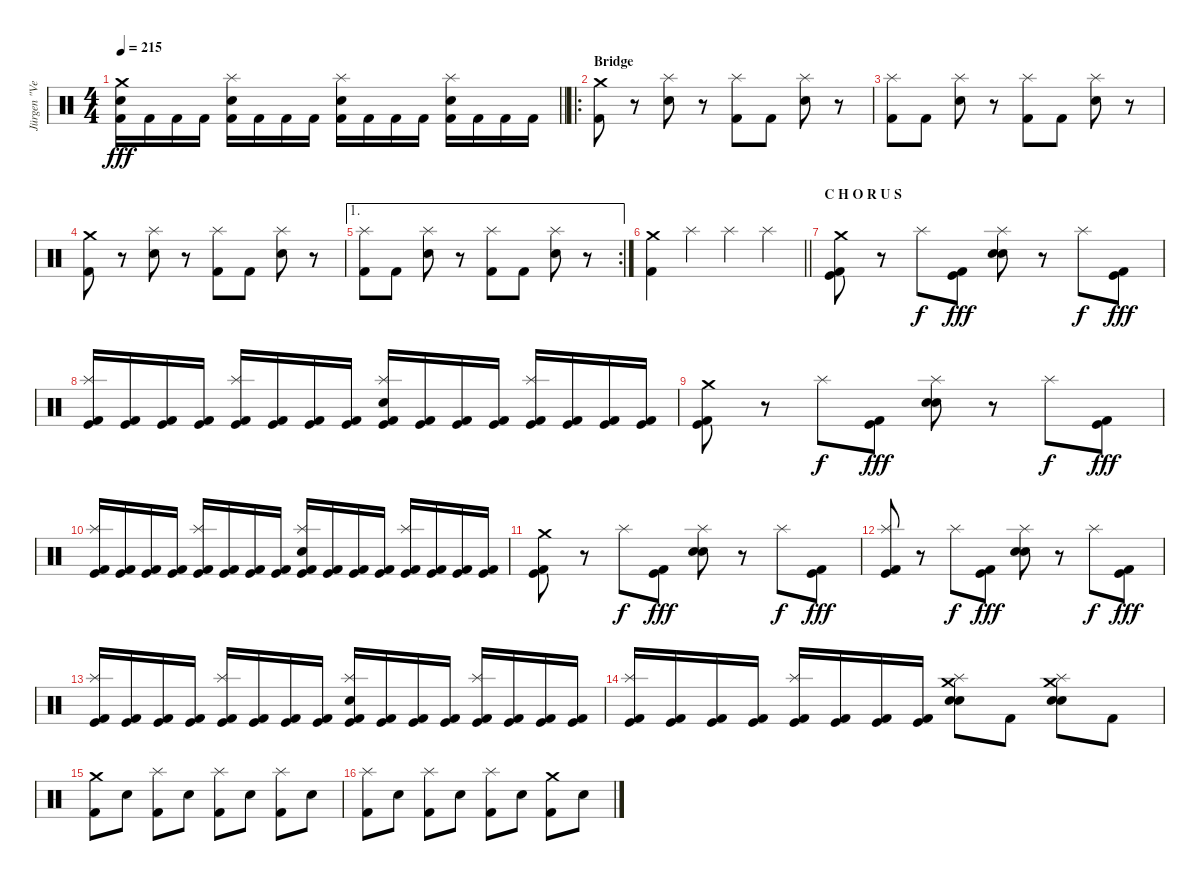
\track ("Jürgen \"Ventor\" Reil" "Jürgen \"Ve") {instrument percussion}
\staff {score}
\articulation defaults
\ts (4 4)
\tempo 215
\clef neutral
\barLineRight lightlight
\ks c
("Crash medium (hit)" "Electric Snare (hit)" "Kick (hit) 2").16{dy fff} "Kick (hit) 2".16 "Kick (hit) 2".16 "Kick (hit) 2".16 ("Splash (hit)" "Electric Snare (hit)" "Kick (hit) 2").16 "Kick (hit) 2".16 "Kick (hit) 2".16 "Kick (hit) 2".16 ("Splash (hit)" "Electric Snare (hit)" "Kick (hit) 2").16 "Kick (hit) 2".16 "Kick (hit) 2".16 "Kick (hit) 2".16 ("Splash (hit)" "Electric Snare (hit)" "Kick (hit) 2").16 "Kick (hit) 2".16 "Kick (hit) 2".16 "Kick (hit) 2".16 |
\ro
\section ("" "Bridge")
("Crash medium (hit)" "Kick (hit) 2").8 r.8 ("Splash (hit)" "Electric Snare (hit)").8 r.8 ("Splash (hit)" "Kick (hit) 2").8 "Kick (hit) 2".8 ("Splash (hit)" "Electric Snare (hit)").8 r.8 |
("Splash (hit)" "Kick (hit) 2").8 "Kick (hit) 2".8 ("Splash (hit)" "Electric Snare (hit)").8 r.8 ("Splash (hit)" "Kick (hit) 2").8 "Kick (hit) 2".8 ("Splash (hit)" "Electric Snare (hit)").8 r.8 |
("Crash medium (hit)" "Kick (hit) 2").8 r.8 ("Splash (hit)" "Electric Snare (hit)").8 r.8 ("Splash (hit)" "Kick (hit) 2").8 "Kick (hit) 2".8 ("Splash (hit)" "Electric Snare (hit)").8 r.8 |
\ae 1
\rc 2
("Splash (hit)" "Kick (hit) 2").8 "Kick (hit) 2".8 ("Splash (hit)" "Electric Snare (hit)").8 r.8 ("Splash (hit)" "Kick (hit) 2").8 "Kick (hit) 2".8 ("Splash (hit)" "Electric Snare (hit)").8 r.8 |
\barLineRight lightlight
("Crash medium (hit)" "Kick (hit) 2").4 "Splash (hit)".4 "Splash (hit)".4 "Splash (hit)".4 |
\section ("" "C H O R U S")
("Crash medium (hit)" "Kick (hit)" "Kick (hit) 2").8 r.8 "Splash (hit)".8{dy f} ("Kick (hit)" "Kick (hit) 2").8{dy fff} ("Splash (hit)" "Snare (hit) 2" "Electric Snare (hit)").8 r.8 "Splash (hit)".8{dy f} ("Kick (hit)" "Kick (hit) 2").8{dy fff} |
("Splash (hit)" "Kick (hit)" "Kick (hit) 2").16 ("Kick (hit)" "Kick (hit) 2").16 ("Kick (hit)" "Kick (hit) 2").16 ("Kick (hit)" "Kick (hit) 2").16 ("Splash (hit)" "Kick (hit)" "Kick (hit) 2").16 ("Kick (hit)" "Kick (hit) 2").16 ("Kick (hit)" "Kick (hit) 2").16 ("Kick (hit)" "Kick (hit) 2").16 ("Splash (hit)" "Electric Snare (hit)" "Kick (hit)" "Kick (hit) 2").16 ("Kick (hit)" "Kick (hit) 2").16 ("Kick (hit)" "Kick (hit) 2").16 ("Kick (hit)" "Kick (hit) 2").16 ("Splash (hit)" "Kick (hit)" "Kick (hit) 2").16 ("Kick (hit)" "Kick (hit) 2").16 ("Kick (hit)" "Kick (hit) 2").16 ("Kick (hit)" "Kick (hit) 2").16 |
("Crash medium (hit)" "Kick (hit)" "Kick (hit) 2").8 r.8 "Splash (hit)".8{dy f} ("Kick (hit)" "Kick (hit) 2").8{dy fff} ("Splash (hit)" "Snare (hit) 2" "Electric Snare (hit)").8 r.8 "Splash (hit)".8{dy f} ("Kick (hit)" "Kick (hit) 2").8{dy fff} |
("Splash (hit)" "Kick (hit)" "Kick (hit) 2").16 ("Kick (hit)" "Kick (hit) 2").16 ("Kick (hit)" "Kick (hit) 2").16 ("Kick (hit)" "Kick (hit) 2").16 ("Splash (hit)" "Kick (hit)" "Kick (hit) 2").16 ("Kick (hit)" "Kick (hit) 2").16 ("Kick (hit)" "Kick (hit) 2").16 ("Kick (hit)" "Kick (hit) 2").16 ("Splash (hit)" "Electric Snare (hit)" "Kick (hit)" "Kick (hit) 2").16 ("Kick (hit)" "Kick (hit) 2").16 ("Kick (hit)" "Kick (hit) 2").16 ("Kick (hit)" "Kick (hit) 2").16 ("Splash (hit)" "Kick (hit)" "Kick (hit) 2").16 ("Kick (hit)" "Kick (hit) 2").16 ("Kick (hit)" "Kick (hit) 2").16 ("Kick (hit)" "Kick (hit) 2").16 |
("Crash medium (hit)" "Kick (hit)" "Kick (hit) 2").8 r.8 "Splash (hit)".8{dy f} ("Kick (hit)" "Kick (hit) 2").8{dy fff} ("Splash (hit)" "Snare (hit) 2" "Electric Snare (hit)").8 r.8 "Splash (hit)".8{dy f} ("Kick (hit)" "Kick (hit) 2").8{dy fff} |
("Splash (hit)" "Kick (hit)" "Kick (hit) 2").8 r.8 "Splash (hit)".8{dy f} ("Kick (hit)" "Kick (hit) 2").8{dy fff} ("Splash (hit)" "Snare (hit) 2" "Electric Snare (hit)").8 r.8 "Splash (hit)".8{dy f} ("Kick (hit)" "Kick (hit) 2").8{dy fff} |
("Splash (hit)" "Kick (hit)" "Kick (hit) 2").16 ("Kick (hit)" "Kick (hit) 2").16 ("Kick (hit)" "Kick (hit) 2").16 ("Kick (hit)" "Kick (hit) 2").16 ("Splash (hit)" "Kick (hit)" "Kick (hit) 2").16 ("Kick (hit)" "Kick (hit) 2").16 ("Kick (hit)" "Kick (hit) 2").16 ("Kick (hit)" "Kick (hit) 2").16 ("Splash (hit)" "Electric Snare (hit)" "Kick (hit)" "Kick (hit) 2").16 ("Kick (hit)" "Kick (hit) 2").16 ("Kick (hit)" "Kick (hit) 2").16 ("Kick (hit)" "Kick (hit) 2").16 ("Splash (hit)" "Kick (hit)" "Kick (hit) 2").16 ("Kick (hit)" "Kick (hit) 2").16 ("Kick (hit)" "Kick (hit) 2").16 ("Kick (hit)" "Kick (hit) 2").16 |
("Splash (hit)" "Kick (hit)" "Kick (hit) 2").16 ("Kick (hit)" "Kick (hit) 2").16 ("Kick (hit)" "Kick (hit) 2").16 ("Kick (hit)" "Kick (hit) 2").16 ("Splash (hit)" "Kick (hit)" "Kick (hit) 2").16 ("Kick (hit)" "Kick (hit) 2").16 ("Kick (hit)" "Kick (hit) 2").16 ("Kick (hit)" "Kick (hit) 2").16 ("Splash (hit)" "Crash medium (hit)" "Electric Snare (hit)" "Snare (hit) 2").8 "Kick (hit) 2".8 ("Splash (hit)" "Crash medium (hit)" "Electric Snare (hit)" "Snare (hit) 2").8 "Kick (hit) 2".8 |
("Crash medium (hit)" "Kick (hit) 2").8 "Electric Snare (hit)".8 ("Splash (hit)" "Kick (hit) 2").8 "Electric Snare (hit)".8 ("Splash (hit)" "Kick (hit) 2").8 "Electric Snare (hit)".8 ("Splash (hit)" "Kick (hit) 2").8 "Electric Snare (hit)".8 |
("Splash (hit)" "Kick (hit) 2").8 "Electric Snare (hit)".8 ("Splash (hit)" "Kick (hit) 2").8 "Electric Snare (hit)".8 ("Splash (hit)" "Kick (hit) 2").8 "Electric Snare (hit)".8 ("Crash medium (hit)" "Kick (hit) 2").8 "Electric Snare (hit)".8
